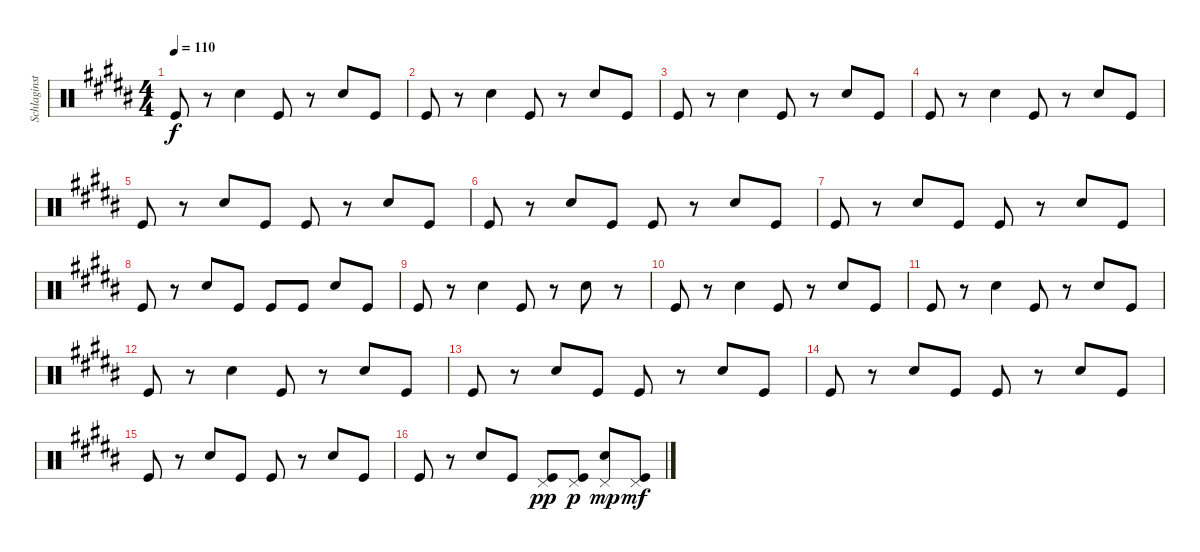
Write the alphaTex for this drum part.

\track ("Schlaginstrumente - Auswahl" "Schlaginst") {instrument percussion}
\staff {score}
\articulation defaults
\ts (4 4)
\tempo 110
\clef neutral
\ks b "Kick (hit)".8{dy f}
r.8 "Snare (hit) 2".4 "Kick (hit)".8 r.8 "Snare (hit) 2".8 "Kick (hit)".8 |
"Kick (hit)".8 r.8 "Snare (hit) 2".4 "Kick (hit)".8 r.8 "Snare (hit) 2".8 "Kick (hit)".8 |
"Kick (hit)".8 r.8 "Snare (hit) 2".4 "Kick (hit)".8 r.8 "Snare (hit) 2".8 "Kick (hit)".8 |
"Kick (hit)".8 r.8 "Snare (hit) 2".4 "Kick (hit)".8 r.8 "Snare (hit) 2".8 "Kick (hit)".8 |
"Kick (hit)".8 r.8 "Snare (hit) 2".8 "Kick (hit)".8 "Kick (hit)".8 r.8 "Snare (hit) 2".8 "Kick (hit)".8 |
"Kick (hit)".8 r.8 "Snare (hit) 2".8 "Kick (hit)".8 "Kick (hit)".8 r.8 "Snare (hit) 2".8 "Kick (hit)".8 |
"Kick (hit)".8 r.8 "Snare (hit) 2".8 "Kick (hit)".8 "Kick (hit)".8 r.8 "Snare (hit) 2".8 "Kick (hit)".8 |
"Kick (hit)".8 r.8 "Snare (hit) 2".8 "Kick (hit)".8 "Kick (hit)".8 "Kick (hit)".8 "Snare (hit) 2".8 "Kick (hit)".8 |
"Kick (hit)".8 r.8 "Snare (hit) 2".4 "Kick (hit)".8 r.8 "Snare (hit) 2".8 r.8 |
"Kick (hit)".8 r.8 "Snare (hit) 2".4 "Kick (hit)".8 r.8 "Snare (hit) 2".8 "Kick (hit)".8 |
"Kick (hit)".8 r.8 "Snare (hit) 2".4 "Kick (hit)".8 r.8 "Snare (hit) 2".8 "Kick (hit)".8 |
"Kick (hit)".8 r.8 "Snare (hit) 2".4 "Kick (hit)".8 r.8 "Snare (hit) 2".8 "Kick (hit)".8 |
"Kick (hit)".8 r.8 "Snare (hit) 2".8 "Kick (hit)".8 "Kick (hit)".8 r.8 "Snare (hit) 2".8 "Kick (hit)".8 |
"Kick (hit)".8 r.8 "Snare (hit) 2".8 "Kick (hit)".8 "Kick (hit)".8 r.8 "Snare (hit) 2".8 "Kick (hit)".8 |
"Kick (hit)".8 r.8 "Snare (hit) 2".8 "Kick (hit)".8 "Kick (hit)".8 r.8 "Snare (hit) 2".8 "Kick (hit)".8 |
"Kick (hit)".8 r.8 "Snare (hit) 2".8 "Kick (hit)".8 ("Pedal Hi-Hat (hit)" "Kick (hit)").8{dy pp} ("Pedal Hi-Hat (hit)" "Kick (hit)").8{dy p} ("Pedal Hi-Hat (hit)" "Snare (hit) 2").8{dy mp} ("Pedal Hi-Hat (hit)" "Kick (hit)").8{dy mf}
